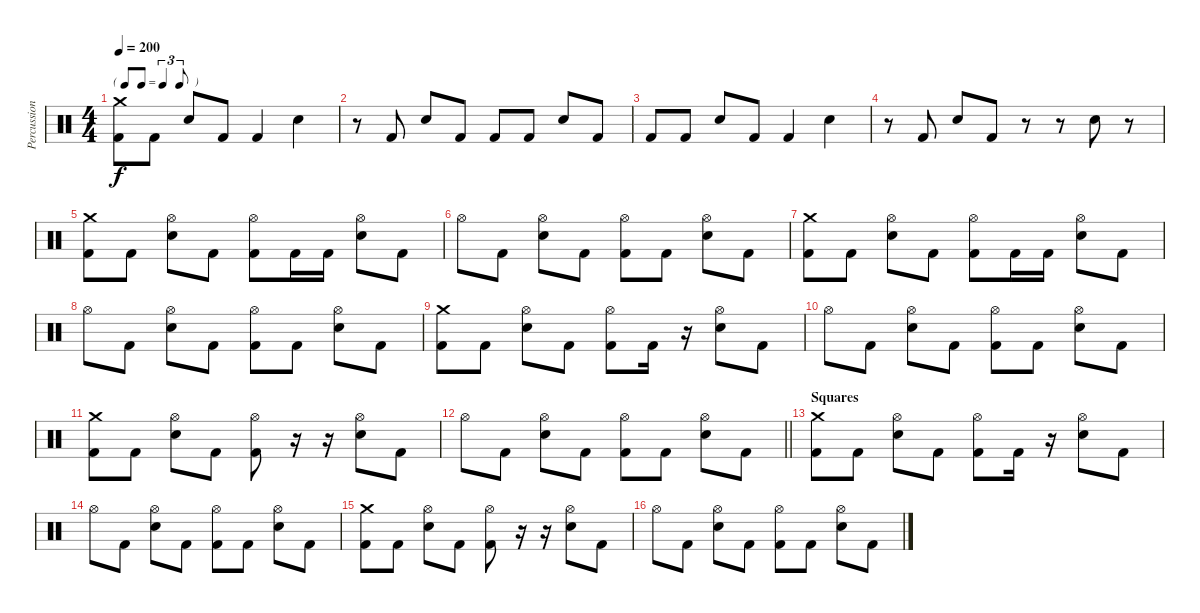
\track ("Percussion" "Percussion") {instrument percussion}
\staff {score}
\articulation defaults
\ts (4 4)
\tf triplet8th
\tempo 200
\clef neutral
\ks c
("Kick (hit) 2" "Crash medium (hit)").8{dy f} "Kick (hit) 2".8 "Electric Snare (hit)".8 "Kick (hit) 2".8 "Kick (hit) 2".4 "Electric Snare (hit)".4 |
r.8 "Kick (hit) 2".8 "Electric Snare (hit)".8 "Kick (hit) 2".8 "Kick (hit) 2".8 "Kick (hit) 2".8 "Electric Snare (hit)".8 "Kick (hit) 2".8 |
"Kick (hit) 2".8 "Kick (hit) 2".8 "Electric Snare (hit)".8 "Kick (hit) 2".8 "Kick (hit) 2".4 "Electric Snare (hit)".4 |
r.8 "Kick (hit) 2".8 "Electric Snare (hit)".8 "Kick (hit) 2".8 r.8 r.8 "Electric Snare (hit)".8 r.8 |
("Kick (hit) 2" "Crash medium (hit)").8 "Kick (hit) 2".8 ("Electric Snare (hit)" "Hi-Hat (open)").8 "Kick (hit) 2".8 ("Kick (hit) 2" "Hi-Hat (open)").8 "Kick (hit) 2".16 "Kick (hit) 2".16 ("Electric Snare (hit)" "Hi-Hat (open)").8 "Kick (hit) 2".8 |
"Hi-Hat (open)".8 "Kick (hit) 2".8 ("Electric Snare (hit)" "Hi-Hat (open)").8 "Kick (hit) 2".8 ("Kick (hit) 2" "Hi-Hat (open)").8 "Kick (hit) 2".8 ("Electric Snare (hit)" "Hi-Hat (open)").8 "Kick (hit) 2".8 |
("Kick (hit) 2" "Crash medium (hit)").8 "Kick (hit) 2".8 ("Electric Snare (hit)" "Hi-Hat (open)").8 "Kick (hit) 2".8 ("Kick (hit) 2" "Hi-Hat (open)").8 "Kick (hit) 2".16 "Kick (hit) 2".16 ("Electric Snare (hit)" "Hi-Hat (open)").8 "Kick (hit) 2".8 |
"Hi-Hat (open)".8 "Kick (hit) 2".8 ("Electric Snare (hit)" "Hi-Hat (open)").8 "Kick (hit) 2".8 ("Kick (hit) 2" "Hi-Hat (open)").8 "Kick (hit) 2".8 ("Electric Snare (hit)" "Hi-Hat (open)").8 "Kick (hit) 2".8 |
("Kick (hit) 2" "Crash medium (hit)").8 "Kick (hit) 2".8 ("Electric Snare (hit)" "Hi-Hat (open)").8 "Kick (hit) 2".8 ("Kick (hit) 2" "Hi-Hat (open)").8 "Kick (hit) 2".16 r.16 ("Electric Snare (hit)" "Hi-Hat (open)").8 "Kick (hit) 2".8 |
"Hi-Hat (open)".8 "Kick (hit) 2".8 ("Electric Snare (hit)" "Hi-Hat (open)").8 "Kick (hit) 2".8 ("Kick (hit) 2" "Hi-Hat (open)").8 "Kick (hit) 2".8 ("Electric Snare (hit)" "Hi-Hat (open)").8 "Kick (hit) 2".8 |
("Kick (hit) 2" "Crash medium (hit)").8 "Kick (hit) 2".8 ("Electric Snare (hit)" "Hi-Hat (open)").8 "Kick (hit) 2".8 ("Kick (hit) 2" "Hi-Hat (open)").8 r.16 r.16 ("Electric Snare (hit)" "Hi-Hat (open)").8 "Kick (hit) 2".8 |
\barLineRight lightlight "Hi-Hat (open)".8 "Kick (hit) 2".8
("Electric Snare (hit)" "Hi-Hat (open)").8 "Kick (hit) 2".8 ("Kick (hit) 2" "Hi-Hat (open)").8 "Kick (hit) 2".8 ("Electric Snare (hit)" "Hi-Hat (open)").8 "Kick (hit) 2".8 |
\section ("" "Squares")
("Kick (hit) 2" "Crash medium (hit)").8 "Kick (hit) 2".8 ("Electric Snare (hit)" "Hi-Hat (open)").8 "Kick (hit) 2".8 ("Kick (hit) 2" "Hi-Hat (open)").8 "Kick (hit) 2".16 r.16 ("Electric Snare (hit)" "Hi-Hat (open)").8 "Kick (hit) 2".8 |
"Hi-Hat (open)".8 "Kick (hit) 2".8 ("Electric Snare (hit)" "Hi-Hat (open)").8 "Kick (hit) 2".8 ("Kick (hit) 2" "Hi-Hat (open)").8 "Kick (hit) 2".8 ("Electric Snare (hit)" "Hi-Hat (open)").8 "Kick (hit) 2".8 |
("Kick (hit) 2" "Crash medium (hit)").8 "Kick (hit) 2".8 ("Electric Snare (hit)" "Hi-Hat (open)").8 "Kick (hit) 2".8 ("Kick (hit) 2" "Hi-Hat (open)").8 r.16 r.16 ("Electric Snare (hit)" "Hi-Hat (open)").8 "Kick (hit) 2".8 |
"Hi-Hat (open)".8 "Kick (hit) 2".8 ("Electric Snare (hit)" "Hi-Hat (open)").8 "Kick (hit) 2".8 ("Kick (hit) 2" "Hi-Hat (open)").8 "Kick (hit) 2".8 ("Electric Snare (hit)" "Hi-Hat (open)").8 "Kick (hit) 2".8
